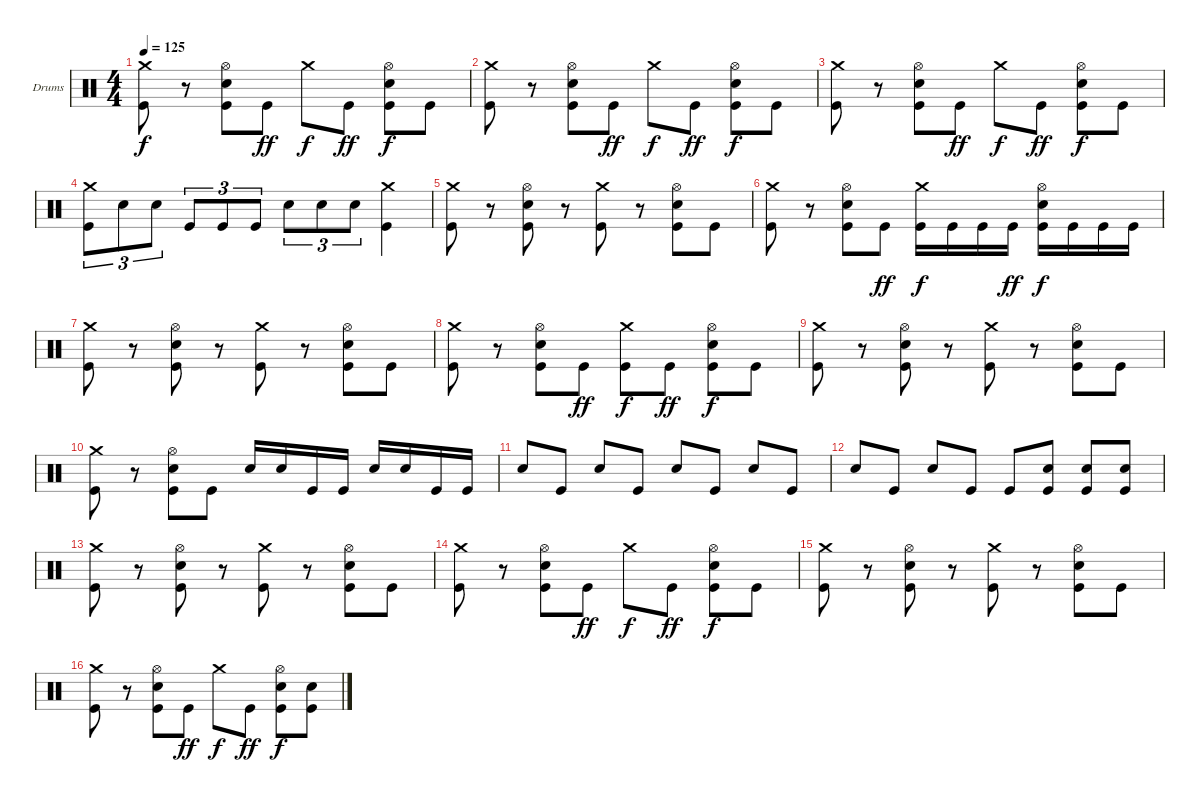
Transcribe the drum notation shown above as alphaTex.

\defaultSystemsLayout 4
\bracketExtendMode groupsimilarinstruments
\firstSystemTrackNameOrientation horizontal
\otherSystemsTrackNameOrientation horizontal
\track ("Drumkit" "Drums") {instrument percussion}
\staff {score}
\articulation defaults
\ts (4 4)
\tempo 125
\clef neutral
\ks c
("Kick (hit)" "Crash medium (hit)").8{dy f} r.8 ("Kick (hit)" "Snare (hit) 2" "Hi-Hat (open)").8 "Kick (hit)".8{dy ff} "Crash medium (hit)".8{dy f} "Kick (hit)".8{dy ff} ("Kick (hit)" "Snare (hit) 2" "Hi-Hat (open)").8{dy f} "Kick (hit)".8 |
("Kick (hit)" "Crash medium (hit)").8 r.8 ("Kick (hit)" "Snare (hit) 2" "Hi-Hat (open)").8 "Kick (hit)".8{dy ff} "Crash medium (hit)".8{dy f} "Kick (hit)".8{dy ff} ("Kick (hit)" "Snare (hit) 2" "Hi-Hat (open)").8{dy f} "Kick (hit)".8 |
("Kick (hit)" "Crash medium (hit)").8 r.8 ("Kick (hit)" "Snare (hit) 2" "Hi-Hat (open)").8 "Kick (hit)".8{dy ff} "Crash medium (hit)".8{dy f} "Kick (hit)".8{dy ff} ("Kick (hit)" "Snare (hit) 2" "Hi-Hat (open)").8{dy f} "Kick (hit)".8 |
("Kick (hit)" "Crash medium (hit)").8{tu (3 2)} "Snare (hit) 2".8{tu (3 2)} "Snare (hit) 2".8{tu (3 2)} "Kick (hit)".8{tu (3 2)} "Kick (hit)".8{tu (3 2)} "Kick (hit)".8{tu (3 2)} "Snare (hit) 2".8{tu (3 2)} "Snare (hit) 2".8{tu (3 2)} "Snare (hit) 2".8{tu (3 2)} ("Kick (hit)" "Crash medium (hit)").4 |
("Kick (hit)" "Crash medium (hit)").8 r.8 ("Kick (hit)" "Snare (hit) 2" "Hi-Hat (open)").8 r.8 ("Kick (hit)" "Crash medium (hit)").8 r.8 ("Kick (hit)" "Snare (hit) 2" "Hi-Hat (open)").8 "Kick (hit)".8 |
("Kick (hit)" "Crash medium (hit)").8 r.8 ("Kick (hit)" "Snare (hit) 2" "Hi-Hat (open)").8 "Kick (hit)".8{dy ff} ("Kick (hit)" "Crash medium (hit)").16{dy f} "Kick (hit)".16 "Kick (hit)".16 "Kick (hit)".16{dy ff} ("Kick (hit)" "Snare (hit) 2" "Hi-Hat (open)").16{dy f} "Kick (hit)".16 "Kick (hit)".16 "Kick (hit)".16 |
("Kick (hit)" "Crash medium (hit)").8 r.8 ("Kick (hit)" "Snare (hit) 2" "Hi-Hat (open)").8 r.8 ("Kick (hit)" "Crash medium (hit)").8 r.8 ("Kick (hit)" "Snare (hit) 2" "Hi-Hat (open)").8 "Kick (hit)".8 |
("Kick (hit)" "Crash medium (hit)").8 r.8 ("Kick (hit)" "Snare (hit) 2" "Hi-Hat (open)").8 "Kick (hit)".8{dy ff} ("Kick (hit)" "Crash medium (hit)").8{dy f} "Kick (hit)".8{dy ff} ("Kick (hit)" "Snare (hit) 2" "Hi-Hat (open)").8{dy f} "Kick (hit)".8 |
("Kick (hit)" "Crash medium (hit)").8 r.8 ("Kick (hit)" "Snare (hit) 2" "Hi-Hat (open)").8 r.8 ("Kick (hit)" "Crash medium (hit)").8 r.8 ("Kick (hit)" "Snare (hit) 2" "Hi-Hat (open)").8 "Kick (hit)".8 |
("Kick (hit)" "Crash medium (hit)").8 r.8 ("Kick (hit)" "Snare (hit) 2" "Hi-Hat (open)").8 "Kick (hit)".8 "Snare (hit) 2".16 "Snare (hit) 2".16 "Kick (hit)".16 "Kick (hit)".16 "Snare (hit) 2".16 "Snare (hit) 2".16 "Kick (hit)".16 "Kick (hit)".16 |
"Snare (hit) 2".8 "Kick (hit)".8 "Snare (hit) 2".8 "Kick (hit)".8 "Snare (hit) 2".8 "Kick (hit)".8 "Snare (hit) 2".8 "Kick (hit)".8 |
"Snare (hit) 2".8 "Kick (hit)".8 "Snare (hit) 2".8 "Kick (hit)".8 "Kick (hit)".8 ("Kick (hit)" "Snare (hit) 2").8 ("Kick (hit)" "Snare (hit) 2").8 ("Kick (hit)" "Snare (hit) 2").8 |
("Kick (hit)" "Crash medium (hit)").8 r.8 ("Kick (hit)" "Snare (hit) 2" "Hi-Hat (open)").8 r.8 ("Kick (hit)" "Crash medium (hit)").8 r.8 ("Kick (hit)" "Snare (hit) 2" "Hi-Hat (open)").8 "Kick (hit)".8 |
("Kick (hit)" "Crash medium (hit)").8 r.8 ("Kick (hit)" "Snare (hit) 2" "Hi-Hat (open)").8 "Kick (hit)".8{dy ff} "Crash medium (hit)".8{dy f} "Kick (hit)".8{dy ff} ("Kick (hit)" "Snare (hit) 2" "Hi-Hat (open)").8{dy f} "Kick (hit)".8 |
("Kick (hit)" "Crash medium (hit)").8 r.8 ("Kick (hit)" "Snare (hit) 2" "Hi-Hat (open)").8 r.8 ("Kick (hit)" "Crash medium (hit)").8 r.8 ("Kick (hit)" "Snare (hit) 2" "Hi-Hat (open)").8 "Kick (hit)".8 |
("Kick (hit)" "Crash medium (hit)").8 r.8 ("Kick (hit)" "Snare (hit) 2" "Hi-Hat (open)").8 "Kick (hit)".8{dy ff} "Crash medium (hit)".8{dy f} "Kick (hit)".8{dy ff} ("Kick (hit)" "Snare (hit) 2" "Hi-Hat (open)").8{dy f} ("Kick (hit)" "Snare (hit) 2").8
